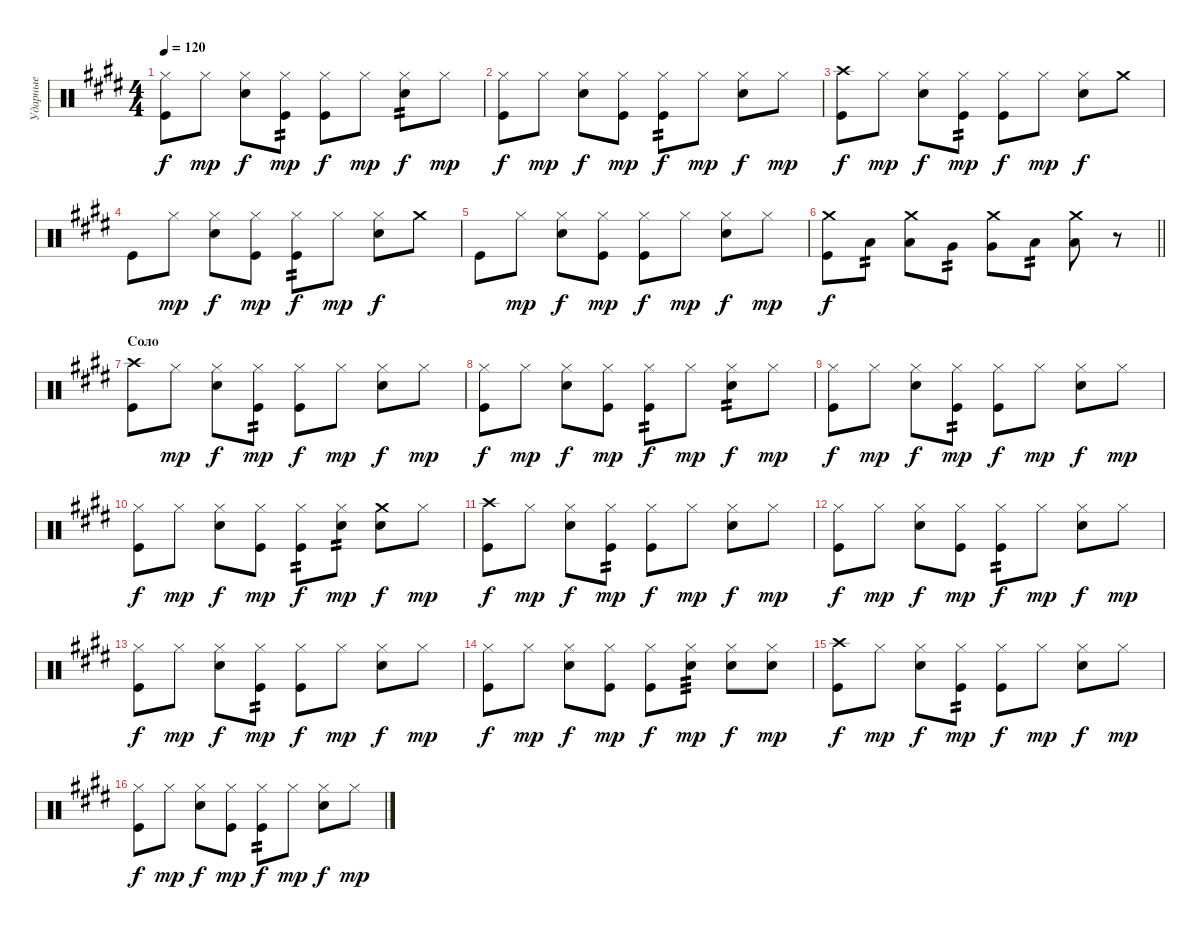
\track ("Ударные" "Ударные") {instrument percussion}
\staff {score}
\articulation defaults
\ts (4 4)
\tempo 120
\clef neutral
\ks e
("Hi-Hat (closed)" "Kick (hit)").8{dy f} "Hi-Hat (closed)".8{dy mp} ("Hi-Hat (closed)" "Snare (hit) 2").8{dy f} ("Hi-Hat (closed)" "Kick (hit)").8{tp 2 dy mp} ("Hi-Hat (closed)" "Kick (hit)").8{dy f} "Hi-Hat (closed)".8{dy mp} ("Hi-Hat (closed)" "Snare (hit) 2").8{tp 2 dy f} "Hi-Hat (closed)".8{dy mp} |
("Hi-Hat (closed)" "Kick (hit)").8{dy f} "Hi-Hat (closed)".8{dy mp} ("Hi-Hat (closed)" "Snare (hit) 2").8{dy f} ("Hi-Hat (closed)" "Kick (hit)").8{dy mp} ("Hi-Hat (closed)" "Kick (hit)").8{tp 2 dy f} "Hi-Hat (closed)".8{dy mp} ("Hi-Hat (closed)" "Snare (hit) 2").8{dy f} "Hi-Hat (closed)".8{dy mp} |
("Crash high (hit)" "Kick (hit)").8{dy f} "Hi-Hat (closed)".8{dy mp} ("Hi-Hat (closed)" "Snare (hit) 2").8{dy f} ("Hi-Hat (closed)" "Kick (hit)").8{tp 2 dy mp} ("Hi-Hat (closed)" "Kick (hit)").8{dy f} "Hi-Hat (closed)".8{dy mp} ("Hi-Hat (closed)" "Snare (hit) 2").8{dy f} "Crash medium (hit)".8 |
"Kick (hit)".8 "Hi-Hat (closed)".8{dy mp} ("Hi-Hat (closed)" "Snare (hit) 2").8{dy f} ("Hi-Hat (closed)" "Kick (hit)").8{dy mp} ("Hi-Hat (closed)" "Kick (hit)").8{tp 2 dy f} "Hi-Hat (closed)".8{dy mp} ("Hi-Hat (closed)" "Snare (hit) 2").8{dy f} "Crash medium (hit)".8 |
"Kick (hit)".8 "Hi-Hat (closed)".8{dy mp} ("Hi-Hat (closed)" "Snare (hit) 2").8{dy f} ("Hi-Hat (closed)" "Kick (hit)").8{dy mp} ("Hi-Hat (closed)" "Kick (hit)").8{dy f} "Hi-Hat (closed)".8{dy mp} ("Hi-Hat (closed)" "Snare (hit) 2").8{dy f} "Hi-Hat (closed)".8{dy mp} |
\barLineRight lightlight
("Crash medium (hit)" "Kick (hit)").8{dy f} "Low Tom (hit)".8{tp 2} ("Crash medium (hit)" "Low Tom (hit)").8 "Very Low Tom (hit)".8{tp 2} ("Crash medium (hit)" "Very Low Tom (hit)").8 "Low Floor Tom (hit)".8{tp 2} ("Crash medium (hit)" "Low Floor Tom (hit)").8 r.8 |
\section ("" "Соло")
("Crash high (hit)" "Kick (hit)").8 "Hi-Hat (closed)".8{dy mp} ("Hi-Hat (closed)" "Snare (hit) 2").8{dy f} ("Hi-Hat (closed)" "Kick (hit)").8{tp 2 dy mp} ("Hi-Hat (closed)" "Kick (hit)").8{dy f} "Hi-Hat (closed)".8{dy mp} ("Hi-Hat (closed)" "Snare (hit) 2").8{dy f} "Hi-Hat (closed)".8{dy mp} |
("Hi-Hat (closed)" "Kick (hit)").8{dy f} "Hi-Hat (closed)".8{dy mp} ("Hi-Hat (closed)" "Snare (hit) 2").8{dy f} ("Hi-Hat (closed)" "Kick (hit)").8{dy mp} ("Hi-Hat (closed)" "Kick (hit)").8{tp 2 dy f} "Hi-Hat (closed)".8{dy mp} ("Hi-Hat (closed)" "Snare (hit) 2").8{tp 2 dy f} "Hi-Hat (closed)".8{dy mp} |
("Hi-Hat (closed)" "Kick (hit)").8{dy f} "Hi-Hat (closed)".8{dy mp} ("Hi-Hat (closed)" "Snare (hit) 2").8{dy f} ("Hi-Hat (closed)" "Kick (hit)").8{tp 2 dy mp} ("Hi-Hat (closed)" "Kick (hit)").8{dy f} "Hi-Hat (closed)".8{dy mp} ("Hi-Hat (closed)" "Snare (hit) 2").8{dy f} "Hi-Hat (closed)".8{dy mp} |
("Hi-Hat (closed)" "Kick (hit)").8{dy f} "Hi-Hat (closed)".8{dy mp} ("Hi-Hat (closed)" "Snare (hit) 2").8{dy f} ("Hi-Hat (closed)" "Kick (hit)").8{dy mp} ("Hi-Hat (closed)" "Kick (hit)").8{tp 2 dy f} ("Hi-Hat (closed)" "Snare (hit) 2").8{tp 2 dy mp} ("Crash medium (hit)" "Snare (hit) 2").8{dy f} "Hi-Hat (closed)".8{dy mp} |
("Crash high (hit)" "Kick (hit)").8{dy f} "Hi-Hat (closed)".8{dy mp} ("Hi-Hat (closed)" "Snare (hit) 2").8{dy f} ("Hi-Hat (closed)" "Kick (hit)").8{tp 2 dy mp} ("Hi-Hat (closed)" "Kick (hit)").8{dy f} "Hi-Hat (closed)".8{dy mp} ("Hi-Hat (closed)" "Snare (hit) 2").8{dy f} "Hi-Hat (closed)".8{dy mp} |
("Hi-Hat (closed)" "Kick (hit)").8{dy f} "Hi-Hat (closed)".8{dy mp} ("Hi-Hat (closed)" "Snare (hit) 2").8{dy f} ("Hi-Hat (closed)" "Kick (hit)").8{dy mp} ("Hi-Hat (closed)" "Kick (hit)").8{tp 2 dy f} "Hi-Hat (closed)".8{dy mp} ("Hi-Hat (closed)" "Snare (hit) 2").8{dy f} "Hi-Hat (closed)".8{dy mp} |
("Hi-Hat (closed)" "Kick (hit)").8{dy f} "Hi-Hat (closed)".8{dy mp} ("Hi-Hat (closed)" "Snare (hit) 2").8{dy f} ("Hi-Hat (closed)" "Kick (hit)").8{tp 2 dy mp} ("Hi-Hat (closed)" "Kick (hit)").8{dy f} "Hi-Hat (closed)".8{dy mp} ("Hi-Hat (closed)" "Snare (hit) 2").8{dy f} "Hi-Hat (closed)".8{dy mp} |
("Hi-Hat (closed)" "Kick (hit)").8{dy f} "Hi-Hat (closed)".8{dy mp} ("Hi-Hat (closed)" "Snare (hit) 2").8{dy f} ("Hi-Hat (closed)" "Kick (hit)").8{dy mp} ("Hi-Hat (closed)" "Kick (hit)").8{dy f} ("Hi-Hat (closed)" "Snare (hit) 2").8{tp 3 dy mp} ("Hi-Hat (closed)" "Snare (hit) 2").8{dy f} ("Hi-Hat (closed)" "Snare (hit) 2").8{dy mp} |
("Crash high (hit)" "Kick (hit)").8{dy f} "Hi-Hat (closed)".8{dy mp} ("Hi-Hat (closed)" "Snare (hit) 2").8{dy f} ("Hi-Hat (closed)" "Kick (hit)").8{tp 2 dy mp} ("Hi-Hat (closed)" "Kick (hit)").8{dy f} "Hi-Hat (closed)".8{dy mp} ("Hi-Hat (closed)" "Snare (hit) 2").8{dy f} "Hi-Hat (closed)".8{dy mp} |
("Hi-Hat (closed)" "Kick (hit)").8{dy f} "Hi-Hat (closed)".8{dy mp} ("Hi-Hat (closed)" "Snare (hit) 2").8{dy f} ("Hi-Hat (closed)" "Kick (hit)").8{dy mp} ("Hi-Hat (closed)" "Kick (hit)").8{tp 2 dy f} "Hi-Hat (closed)".8{dy mp} ("Hi-Hat (closed)" "Snare (hit) 2").8{dy f} "Hi-Hat (closed)".8{dy mp}
